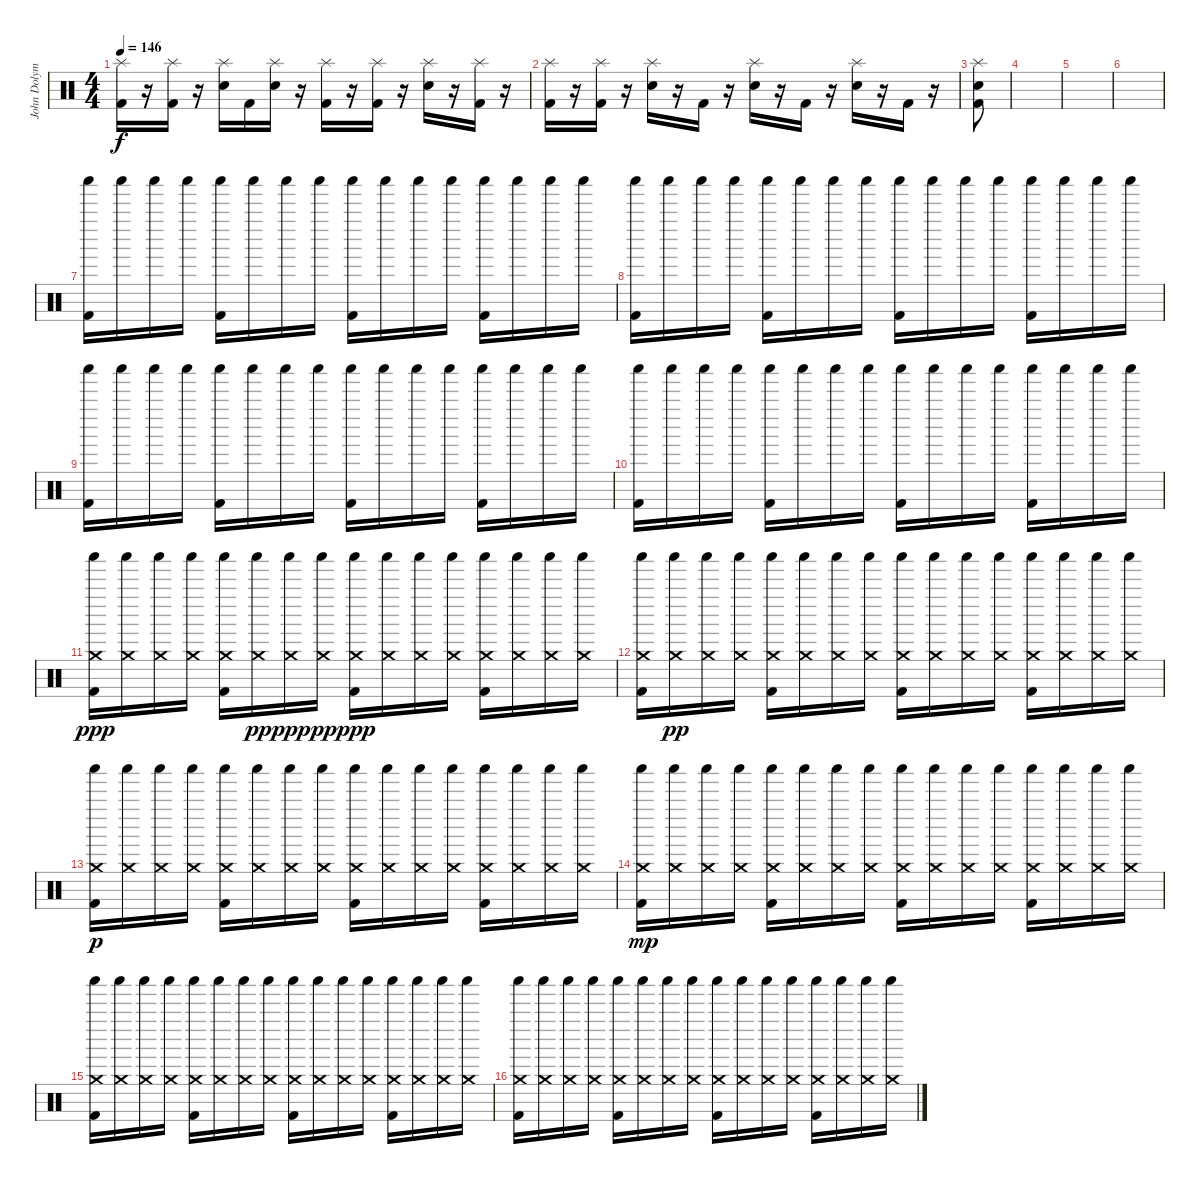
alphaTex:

\track ("John Dolyman" "John Dolym") {instrument percussion}
\staff {score}
\articulation defaults
\ts (4 4)
\tempo 146
\clef neutral
\ks c
("Splash (hit)" "Kick (hit) 2").16{dy f} r.16 ("Splash (hit)" "Kick (hit) 2").16 r.16 ("Splash (hit)" "Electric Snare (hit)").16 "Kick (hit) 2".16 ("Splash (hit)" "Electric Snare (hit)").16 r.16 ("Splash (hit)" "Kick (hit) 2").16 r.16 ("Splash (hit)" "Kick (hit) 2").16 r.16 ("Splash (hit)" "Electric Snare (hit)").16 r.16 ("Splash (hit)" "Kick (hit) 2").16 r.16 |
("Splash (hit)" "Kick (hit) 2").16 r.16 ("Splash (hit)" "Kick (hit) 2").16 r.16 ("Splash (hit)" "Electric Snare (hit)").16 r.16 "Kick (hit) 2".16 r.16 ("Splash (hit)" "Electric Snare (hit)").16 r.16 "Kick (hit) 2".16 r.16 ("Splash (hit)" "Electric Snare (hit)").16 r.16 "Kick (hit) 2".16 r.16 |
("Splash (hit)" "Electric Snare (hit)" "Kick (hit) 2").8 |
|
|
|
("Shaker (hit)" "Kick (hit) 2").16 "Shaker (hit)".16 "Shaker (hit)".16 "Shaker (hit)".16 ("Shaker (hit)" "Kick (hit) 2").16 "Shaker (hit)".16 "Shaker (hit)".16 "Shaker (hit)".16 ("Shaker (hit)" "Kick (hit) 2").16 "Shaker (hit)".16 "Shaker (hit)".16 "Shaker (hit)".16 ("Shaker (hit)" "Kick (hit) 2").16 "Shaker (hit)".16 "Shaker (hit)".16 "Shaker (hit)".16 |
("Shaker (hit)" "Kick (hit) 2").16 "Shaker (hit)".16 "Shaker (hit)".16 "Shaker (hit)".16 ("Shaker (hit)" "Kick (hit) 2").16 "Shaker (hit)".16 "Shaker (hit)".16 "Shaker (hit)".16 ("Shaker (hit)" "Kick (hit) 2").16 "Shaker (hit)".16 "Shaker (hit)".16 "Shaker (hit)".16 ("Shaker (hit)" "Kick (hit) 2").16 "Shaker (hit)".16 "Shaker (hit)".16 "Shaker (hit)".16 |
("Shaker (hit)" "Kick (hit) 2").16 "Shaker (hit)".16 "Shaker (hit)".16 "Shaker (hit)".16 ("Shaker (hit)" "Kick (hit) 2").16 "Shaker (hit)".16 "Shaker (hit)".16 "Shaker (hit)".16 ("Shaker (hit)" "Kick (hit) 2").16 "Shaker (hit)".16 "Shaker (hit)".16 "Shaker (hit)".16 ("Shaker (hit)" "Kick (hit) 2").16 "Shaker (hit)".16 "Shaker (hit)".16 "Shaker (hit)".16 |
("Shaker (hit)" "Kick (hit) 2").16 "Shaker (hit)".16 "Shaker (hit)".16 "Shaker (hit)".16 ("Shaker (hit)" "Kick (hit) 2").16 "Shaker (hit)".16 "Shaker (hit)".16 "Shaker (hit)".16 ("Shaker (hit)" "Kick (hit) 2").16 "Shaker (hit)".16 "Shaker (hit)".16 "Shaker (hit)".16 ("Shaker (hit)" "Kick (hit) 2").16 "Shaker (hit)".16 "Shaker (hit)".16 "Shaker (hit)".16 |
("Crash medium (hit)" "Shaker (hit)" "Kick (hit) 2").16{dy ppp} ("Crash medium (hit)" "Shaker (hit)").16 ("Crash medium (hit)" "Shaker (hit)").16 ("Crash medium (hit)" "Shaker (hit)").16 ("Crash medium (hit)" "Shaker (hit)" "Kick (hit) 2").16 ("Crash medium (hit)" "Shaker (hit)").16{dy pp} ("Crash medium (hit)" "Shaker (hit)").16{dy ppp} ("Crash medium (hit)" "Shaker (hit)").16{dy pp} ("Crash medium (hit)" "Shaker (hit)" "Kick (hit) 2").16{dy ppp} ("Crash medium (hit)" "Shaker (hit)").16 ("Crash medium (hit)" "Shaker (hit)").16 ("Crash medium (hit)" "Shaker (hit)").16 ("Crash medium (hit)" "Shaker (hit)" "Kick (hit) 2").16 ("Crash medium (hit)" "Shaker (hit)").16 ("Crash medium (hit)" "Shaker (hit)").16 ("Crash medium (hit)" "Shaker (hit)").16 |
("Crash medium (hit)" "Shaker (hit)" "Kick (hit) 2").16 ("Crash medium (hit)" "Shaker (hit)").16{dy pp} ("Crash medium (hit)" "Shaker (hit)").16 ("Crash medium (hit)" "Shaker (hit)").16 ("Crash medium (hit)" "Shaker (hit)" "Kick (hit) 2").16 ("Crash medium (hit)" "Shaker (hit)").16 ("Crash medium (hit)" "Shaker (hit)").16 ("Crash medium (hit)" "Shaker (hit)").16 ("Crash medium (hit)" "Shaker (hit)" "Kick (hit) 2").16 ("Crash medium (hit)" "Shaker (hit)").16 ("Crash medium (hit)" "Shaker (hit)").16 ("Crash medium (hit)" "Shaker (hit)").16 ("Crash medium (hit)" "Shaker (hit)" "Kick (hit) 2").16 ("Crash medium (hit)" "Shaker (hit)").16 ("Crash medium (hit)" "Shaker (hit)").16 ("Crash medium (hit)" "Shaker (hit)").16 |
("Crash medium (hit)" "Shaker (hit)" "Kick (hit) 2").16{dy p} ("Crash medium (hit)" "Shaker (hit)").16 ("Crash medium (hit)" "Shaker (hit)").16 ("Crash medium (hit)" "Shaker (hit)").16 ("Crash medium (hit)" "Shaker (hit)" "Kick (hit) 2").16 ("Crash medium (hit)" "Shaker (hit)").16 ("Crash medium (hit)" "Shaker (hit)").16 ("Crash medium (hit)" "Shaker (hit)").16 ("Crash medium (hit)" "Shaker (hit)" "Kick (hit) 2").16 ("Crash medium (hit)" "Shaker (hit)").16 ("Crash medium (hit)" "Shaker (hit)").16 ("Crash medium (hit)" "Shaker (hit)").16 ("Crash medium (hit)" "Shaker (hit)" "Kick (hit) 2").16 ("Crash medium (hit)" "Shaker (hit)").16 ("Crash medium (hit)" "Shaker (hit)").16 ("Crash medium (hit)" "Shaker (hit)").16 |
("Crash medium (hit)" "Shaker (hit)" "Kick (hit) 2").16{dy mp} ("Crash medium (hit)" "Shaker (hit)").16 ("Crash medium (hit)" "Shaker (hit)").16 ("Crash medium (hit)" "Shaker (hit)").16 ("Crash medium (hit)" "Shaker (hit)" "Kick (hit) 2").16 ("Crash medium (hit)" "Shaker (hit)").16 ("Crash medium (hit)" "Shaker (hit)").16 ("Crash medium (hit)" "Shaker (hit)").16 ("Crash medium (hit)" "Shaker (hit)" "Kick (hit) 2").16 ("Crash medium (hit)" "Shaker (hit)").16 ("Crash medium (hit)" "Shaker (hit)").16 ("Crash medium (hit)" "Shaker (hit)").16 ("Crash medium (hit)" "Shaker (hit)" "Kick (hit) 2").16 ("Crash medium (hit)" "Shaker (hit)").16 ("Crash medium (hit)" "Shaker (hit)").16 ("Crash medium (hit)" "Shaker (hit)").16 |
("Crash medium (hit)" "Shaker (hit)" "Kick (hit) 2").16 ("Crash medium (hit)" "Shaker (hit)").16 ("Crash medium (hit)" "Shaker (hit)").16 ("Crash medium (hit)" "Shaker (hit)").16 ("Crash medium (hit)" "Shaker (hit)" "Kick (hit) 2").16 ("Crash medium (hit)" "Shaker (hit)").16 ("Crash medium (hit)" "Shaker (hit)").16 ("Crash medium (hit)" "Shaker (hit)").16 ("Crash medium (hit)" "Shaker (hit)" "Kick (hit) 2").16 ("Crash medium (hit)" "Shaker (hit)").16 ("Crash medium (hit)" "Shaker (hit)").16 ("Crash medium (hit)" "Shaker (hit)").16 ("Crash medium (hit)" "Shaker (hit)" "Kick (hit) 2").16 ("Crash medium (hit)" "Shaker (hit)").16 ("Crash medium (hit)" "Shaker (hit)").16 ("Crash medium (hit)" "Shaker (hit)").16 |
("Crash medium (hit)" "Shaker (hit)" "Kick (hit) 2").16 ("Crash medium (hit)" "Shaker (hit)").16 ("Crash medium (hit)" "Shaker (hit)").16 ("Crash medium (hit)" "Shaker (hit)").16 ("Crash medium (hit)" "Shaker (hit)" "Kick (hit) 2").16 ("Crash medium (hit)" "Shaker (hit)").16 ("Crash medium (hit)" "Shaker (hit)").16 ("Crash medium (hit)" "Shaker (hit)").16 ("Crash medium (hit)" "Shaker (hit)" "Kick (hit) 2").16 ("Crash medium (hit)" "Shaker (hit)").16 ("Crash medium (hit)" "Shaker (hit)").16 ("Crash medium (hit)" "Shaker (hit)").16 ("Crash medium (hit)" "Shaker (hit)" "Kick (hit) 2").16 ("Crash medium (hit)" "Shaker (hit)").16 ("Crash medium (hit)" "Shaker (hit)").16 ("Crash medium (hit)" "Shaker (hit)").16
